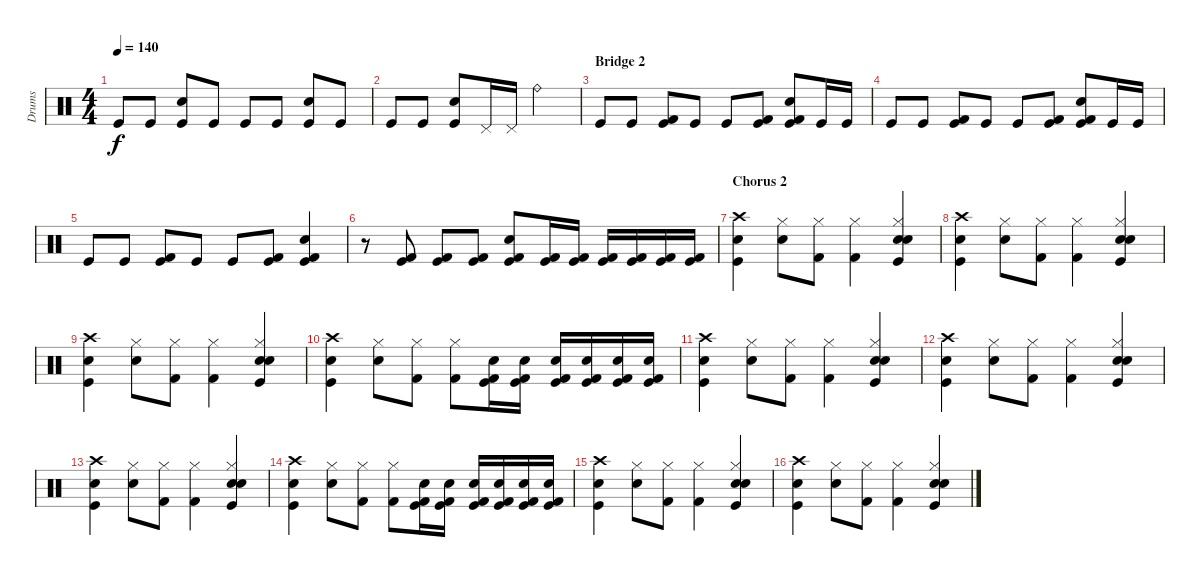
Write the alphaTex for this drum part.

\track ("Drums" "Drums") {instrument percussion}
\staff {score}
\articulation defaults
\ts (4 4)
\tempo 140
\clef neutral
\ks c "Kick (hit)".8{dy f} "Kick (hit)".8
("Snare (hit) 2" "Kick (hit)").8 "Kick (hit)".8 "Kick (hit)".8 "Kick (hit)".8 ("Snare (hit) 2" "Kick (hit)").8 "Kick (hit)".8 |
"Kick (hit)".8 "Kick (hit)".8 ("Snare (hit) 2" "Kick (hit)").8 "Pedal Hi-Hat (hit)".16 "Pedal Hi-Hat (hit)".16 "Ride (bell)".2 |
\section ("" "Bridge 2")
"Kick (hit)".8 "Kick (hit)".8 ("Kick (hit) 2" "Kick (hit)").8 "Kick (hit)".8 "Kick (hit)".8 ("Kick (hit) 2" "Kick (hit)").8 ("Snare (hit) 2" "Kick (hit) 2" "Kick (hit)").8 "Kick (hit)".16 "Kick (hit)".16 |
"Kick (hit)".8 "Kick (hit)".8 ("Kick (hit) 2" "Kick (hit)").8 "Kick (hit)".8 "Kick (hit)".8 ("Kick (hit) 2" "Kick (hit)").8 ("Snare (hit) 2" "Kick (hit) 2" "Kick (hit)").8 "Kick (hit)".16 "Kick (hit)".16 |
"Kick (hit)".8 "Kick (hit)".8 ("Kick (hit) 2" "Kick (hit)").8 "Kick (hit)".8 "Kick (hit)".8 ("Kick (hit) 2" "Kick (hit)").8 ("Snare (hit) 2" "Kick (hit) 2" "Kick (hit)").4 |
r.8 ("Kick (hit) 2" "Kick (hit)").8 ("Kick (hit) 2" "Kick (hit)").8 ("Kick (hit) 2" "Kick (hit)").8 ("Snare (hit) 2" "Kick (hit) 2" "Kick (hit)").8 ("Kick (hit) 2" "Kick (hit)").16 ("Kick (hit) 2" "Kick (hit)").16 ("Kick (hit) 2" "Kick (hit)").16 ("Kick (hit) 2" "Kick (hit)").16 ("Kick (hit) 2" "Kick (hit)").16 ("Kick (hit) 2" "Kick (hit)").16 |
\section ("" "Chorus 2")
("Crash high (hit)" "Snare (hit) 2" "Kick (hit)").4 ("Hi-Hat (closed)" "Snare (hit) 2").8 ("Hi-Hat (closed)" "Kick (hit) 2").8 ("Hi-Hat (closed)" "Kick (hit) 2").4 ("Electric Snare (hit)" "Hi-Hat (closed)" "Snare (hit) 2" "Kick (hit)").4 |
("Crash high (hit)" "Snare (hit) 2" "Kick (hit)").4 ("Hi-Hat (closed)" "Snare (hit) 2").8 ("Hi-Hat (closed)" "Kick (hit) 2").8 ("Hi-Hat (closed)" "Kick (hit) 2").4 ("Electric Snare (hit)" "Hi-Hat (closed)" "Snare (hit) 2" "Kick (hit)").4 |
("Crash high (hit)" "Snare (hit) 2" "Kick (hit)").4 ("Hi-Hat (closed)" "Snare (hit) 2").8 ("Hi-Hat (closed)" "Kick (hit) 2").8 ("Hi-Hat (closed)" "Kick (hit) 2").4 ("Electric Snare (hit)" "Hi-Hat (closed)" "Snare (hit) 2" "Kick (hit)").4 |
("Crash high (hit)" "Snare (hit) 2" "Kick (hit)").4 ("Hi-Hat (closed)" "Snare (hit) 2").8 ("Hi-Hat (closed)" "Kick (hit) 2").8 ("Hi-Hat (closed)" "Kick (hit) 2").8 ("Electric Snare (hit)" "Kick (hit) 2" "Kick (hit)").16 ("Electric Snare (hit)" "Kick (hit) 2" "Kick (hit)").16 ("Electric Snare (hit)" "Kick (hit) 2" "Kick (hit)").16 ("Electric Snare (hit)" "Kick (hit) 2" "Kick (hit)").16 ("Electric Snare (hit)" "Kick (hit) 2" "Kick (hit)").16 ("Electric Snare (hit)" "Kick (hit) 2" "Kick (hit)").16 |
("Crash high (hit)" "Snare (hit) 2" "Kick (hit)").4 ("Hi-Hat (closed)" "Snare (hit) 2").8 ("Hi-Hat (closed)" "Kick (hit) 2").8 ("Hi-Hat (closed)" "Kick (hit) 2").4 ("Electric Snare (hit)" "Hi-Hat (closed)" "Snare (hit) 2" "Kick (hit)").4 |
("Crash high (hit)" "Snare (hit) 2" "Kick (hit)").4 ("Hi-Hat (closed)" "Snare (hit) 2").8 ("Hi-Hat (closed)" "Kick (hit) 2").8 ("Hi-Hat (closed)" "Kick (hit) 2").4 ("Electric Snare (hit)" "Hi-Hat (closed)" "Snare (hit) 2" "Kick (hit)").4 |
("Crash high (hit)" "Snare (hit) 2" "Kick (hit)").4 ("Hi-Hat (closed)" "Snare (hit) 2").8 ("Hi-Hat (closed)" "Kick (hit) 2").8 ("Hi-Hat (closed)" "Kick (hit) 2").4 ("Electric Snare (hit)" "Hi-Hat (closed)" "Snare (hit) 2" "Kick (hit)").4 |
("Crash high (hit)" "Snare (hit) 2" "Kick (hit)").4 ("Hi-Hat (closed)" "Snare (hit) 2").8 ("Hi-Hat (closed)" "Kick (hit) 2").8 ("Hi-Hat (closed)" "Kick (hit) 2").8 ("Electric Snare (hit)" "Kick (hit) 2" "Kick (hit)").16 ("Electric Snare (hit)" "Kick (hit) 2" "Kick (hit)").16 ("Electric Snare (hit)" "Kick (hit) 2" "Kick (hit)").16 ("Electric Snare (hit)" "Kick (hit) 2" "Kick (hit)").16 ("Electric Snare (hit)" "Kick (hit) 2" "Kick (hit)").16 ("Electric Snare (hit)" "Kick (hit) 2" "Kick (hit)").16 |
("Crash high (hit)" "Snare (hit) 2" "Kick (hit)").4 ("Hi-Hat (closed)" "Snare (hit) 2").8 ("Hi-Hat (closed)" "Kick (hit) 2").8 ("Hi-Hat (closed)" "Kick (hit) 2").4 ("Electric Snare (hit)" "Hi-Hat (closed)" "Snare (hit) 2" "Kick (hit)").4 |
("Crash high (hit)" "Snare (hit) 2" "Kick (hit)").4 ("Hi-Hat (closed)" "Snare (hit) 2").8 ("Hi-Hat (closed)" "Kick (hit) 2").8 ("Hi-Hat (closed)" "Kick (hit) 2").4 ("Electric Snare (hit)" "Hi-Hat (closed)" "Snare (hit) 2" "Kick (hit)").4
